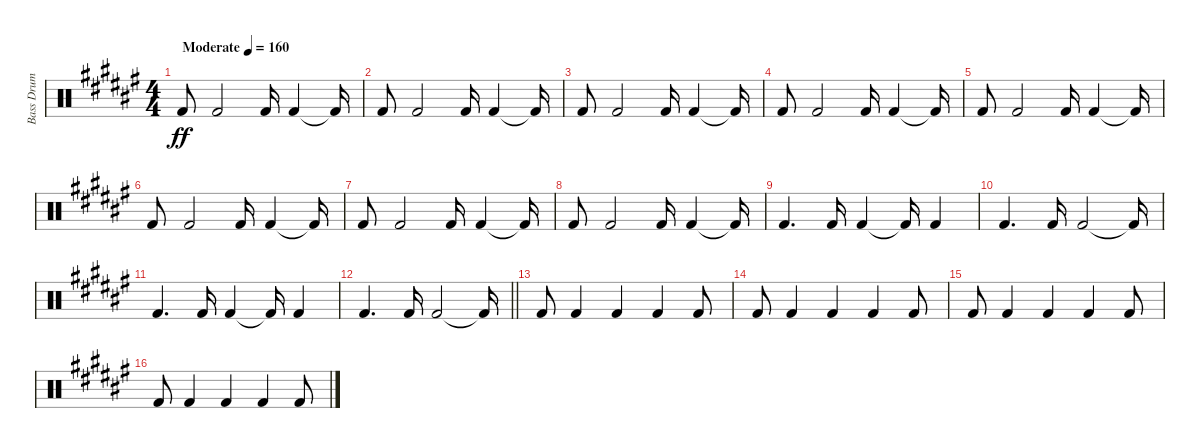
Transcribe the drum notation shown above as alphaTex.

\track ("Bass Drum" "Bass Drum") {instrument percussion}
\staff {score}
\articulation defaults
\ts (4 4)
\tempo (160 "Moderate")
\clef neutral
\ks d#minor "Kick (hit) 2".8{dy ff} "Kick (hit) 2".2 "Kick (hit) 2".16 "Kick (hit) 2".4 "Kick (hit) 2"{t}.16
|
"Kick (hit) 2".8 "Kick (hit) 2".2 "Kick (hit) 2".16 "Kick (hit) 2".4 "Kick (hit) 2"{t}.16 |
"Kick (hit) 2".8 "Kick (hit) 2".2 "Kick (hit) 2".16 "Kick (hit) 2".4 "Kick (hit) 2"{t}.16 |
"Kick (hit) 2".8 "Kick (hit) 2".2 "Kick (hit) 2".16 "Kick (hit) 2".4 "Kick (hit) 2"{t}.16 |
"Kick (hit) 2".8 "Kick (hit) 2".2 "Kick (hit) 2".16 "Kick (hit) 2".4 "Kick (hit) 2"{t}.16 |
"Kick (hit) 2".8 "Kick (hit) 2".2 "Kick (hit) 2".16 "Kick (hit) 2".4 "Kick (hit) 2"{t}.16 |
"Kick (hit) 2".8 "Kick (hit) 2".2 "Kick (hit) 2".16 "Kick (hit) 2".4 "Kick (hit) 2"{t}.16 |
"Kick (hit) 2".8 "Kick (hit) 2".2 "Kick (hit) 2".16 "Kick (hit) 2".4 "Kick (hit) 2"{t}.16 |
"Kick (hit) 2".4{d} "Kick (hit) 2".16 "Kick (hit) 2".4 "Kick (hit) 2"{t}.16 "Kick (hit) 2".4 |
"Kick (hit) 2".4{d} "Kick (hit) 2".16 "Kick (hit) 2".2 "Kick (hit) 2"{t}.16 |
"Kick (hit) 2".4{d} "Kick (hit) 2".16 "Kick (hit) 2".4 "Kick (hit) 2"{t}.16 "Kick (hit) 2".4 |
\barLineRight lightlight "Kick (hit) 2".4{d} "Kick (hit) 2".16 "Kick (hit) 2".2 "Kick (hit) 2"{t}.16
|
"Kick (hit) 2".8 "Kick (hit) 2".4 "Kick (hit) 2".4 "Kick (hit) 2".4 "Kick (hit) 2".8 |
"Kick (hit) 2".8 "Kick (hit) 2".4 "Kick (hit) 2".4 "Kick (hit) 2".4 "Kick (hit) 2".8 |
"Kick (hit) 2".8 "Kick (hit) 2".4 "Kick (hit) 2".4 "Kick (hit) 2".4 "Kick (hit) 2".8 |
"Kick (hit) 2".8 "Kick (hit) 2".4 "Kick (hit) 2".4 "Kick (hit) 2".4 "Kick (hit) 2".8
